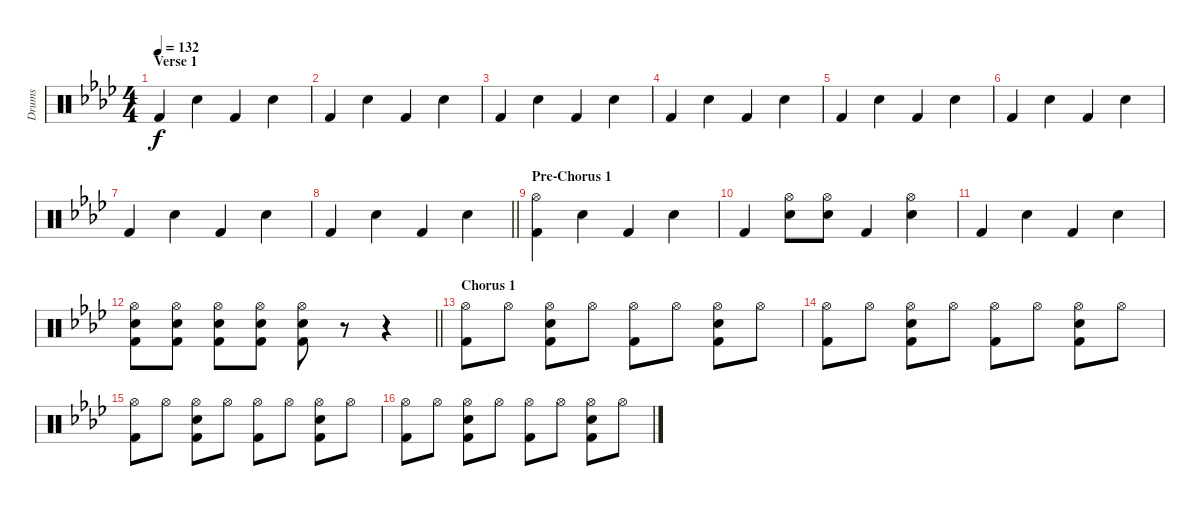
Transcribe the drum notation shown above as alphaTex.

\track ("Drums" "Drums") {instrument percussion}
\staff {score}
\articulation defaults
\ts (4 4)
\section ("" "Verse 1")
\tempo 132
\clef neutral
\ks ab "Kick (hit) 2".4{dy f} "Electric Snare (hit)".4 "Kick (hit) 2".4 "Electric Snare (hit)".4
|
"Kick (hit) 2".4 "Electric Snare (hit)".4 "Kick (hit) 2".4 "Electric Snare (hit)".4 |
"Kick (hit) 2".4 "Electric Snare (hit)".4 "Kick (hit) 2".4 "Electric Snare (hit)".4 |
"Kick (hit) 2".4 "Electric Snare (hit)".4 "Kick (hit) 2".4 "Electric Snare (hit)".4 |
"Kick (hit) 2".4 "Electric Snare (hit)".4 "Kick (hit) 2".4 "Electric Snare (hit)".4 |
"Kick (hit) 2".4 "Electric Snare (hit)".4 "Kick (hit) 2".4 "Electric Snare (hit)".4 |
"Kick (hit) 2".4 "Electric Snare (hit)".4 "Kick (hit) 2".4 "Electric Snare (hit)".4 |
\barLineRight lightlight "Kick (hit) 2".4 "Electric Snare (hit)".4 "Kick (hit) 2".4 "Electric Snare (hit)".4
|
\section ("" "Pre-Chorus 1")
("Hi-Hat (open)" "Kick (hit) 2").4 "Electric Snare (hit)".4 "Kick (hit) 2".4 "Electric Snare (hit)".4 |
"Kick (hit) 2".4 ("Hi-Hat (open)" "Electric Snare (hit)").8 ("Hi-Hat (open)" "Electric Snare (hit)").8 "Kick (hit) 2".4 ("Hi-Hat (open)" "Electric Snare (hit)").4 |
"Kick (hit) 2".4 "Electric Snare (hit)".4 "Kick (hit) 2".4 "Electric Snare (hit)".4 |
\barLineRight lightlight
("Hi-Hat (open)" "Electric Snare (hit)" "Kick (hit) 2").8 ("Hi-Hat (open)" "Electric Snare (hit)" "Kick (hit) 2").8 ("Hi-Hat (open)" "Electric Snare (hit)" "Kick (hit) 2").8 ("Hi-Hat (open)" "Electric Snare (hit)" "Kick (hit) 2").8 ("Hi-Hat (open)" "Electric Snare (hit)" "Kick (hit) 2").8 r.8 r.4 |
\section ("" "Chorus 1")
("Hi-Hat (open)" "Kick (hit) 2").8 "Hi-Hat (open)".8 ("Hi-Hat (open)" "Electric Snare (hit)" "Kick (hit) 2").8 "Hi-Hat (open)".8 ("Hi-Hat (open)" "Kick (hit) 2").8 "Hi-Hat (open)".8 ("Hi-Hat (open)" "Electric Snare (hit)" "Kick (hit) 2").8 "Hi-Hat (open)".8 |
("Hi-Hat (open)" "Kick (hit) 2").8 "Hi-Hat (open)".8 ("Hi-Hat (open)" "Electric Snare (hit)" "Kick (hit) 2").8 "Hi-Hat (open)".8 ("Hi-Hat (open)" "Kick (hit) 2").8 "Hi-Hat (open)".8 ("Hi-Hat (open)" "Electric Snare (hit)" "Kick (hit) 2").8 "Hi-Hat (open)".8 |
("Hi-Hat (open)" "Kick (hit) 2").8 "Hi-Hat (open)".8 ("Hi-Hat (open)" "Electric Snare (hit)" "Kick (hit) 2").8 "Hi-Hat (open)".8 ("Hi-Hat (open)" "Kick (hit) 2").8 "Hi-Hat (open)".8 ("Hi-Hat (open)" "Electric Snare (hit)" "Kick (hit) 2").8 "Hi-Hat (open)".8 |
("Hi-Hat (open)" "Kick (hit) 2").8 "Hi-Hat (open)".8 ("Hi-Hat (open)" "Electric Snare (hit)" "Kick (hit) 2").8 "Hi-Hat (open)".8 ("Hi-Hat (open)" "Kick (hit) 2").8 "Hi-Hat (open)".8 ("Hi-Hat (open)" "Electric Snare (hit)" "Kick (hit) 2").8 "Hi-Hat (open)".8
